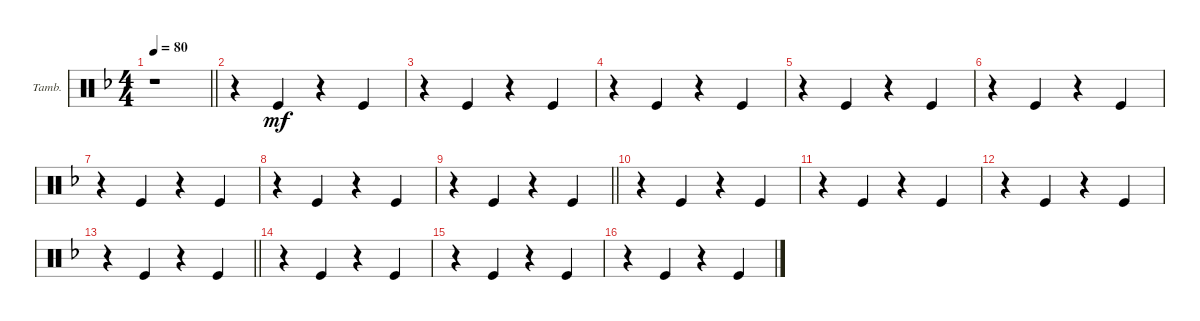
\defaultSystemsLayout 4
\bracketExtendMode groupsimilarinstruments
\firstSystemTrackNameOrientation horizontal
\otherSystemsTrackNameOrientation horizontal
\track ("Tambourine" "Tamb.") {instrument percussion}
\staff {score}
\articulation defaults
\ts (4 4)
\tempo 80
\clef neutral
\barLineRight lightlight
\ks f
r.1{dy p} |
r.4 "Kick (hit)".4{dy mf} r.4 "Kick (hit)".4 |
r.4 "Kick (hit)".4 r.4 "Kick (hit)".4 |
r.4 "Kick (hit)".4 r.4 "Kick (hit)".4 |
r.4 "Kick (hit)".4 r.4 "Kick (hit)".4 |
r.4 "Kick (hit)".4 r.4 "Kick (hit)".4 |
r.4 "Kick (hit)".4 r.4 "Kick (hit)".4 |
r.4 "Kick (hit)".4 r.4 "Kick (hit)".4 |
\barLineRight lightlight
r.4 "Kick (hit)".4 r.4 "Kick (hit)".4 |
r.4 "Kick (hit)".4 r.4 "Kick (hit)".4 |
r.4 "Kick (hit)".4 r.4 "Kick (hit)".4 |
r.4 "Kick (hit)".4 r.4 "Kick (hit)".4 |
\barLineRight lightlight
r.4 "Kick (hit)".4 r.4 "Kick (hit)".4 |
r.4 "Kick (hit)".4 r.4 "Kick (hit)".4 |
r.4 "Kick (hit)".4 r.4 "Kick (hit)".4 |
r.4 "Kick (hit)".4 r.4 "Kick (hit)".4
